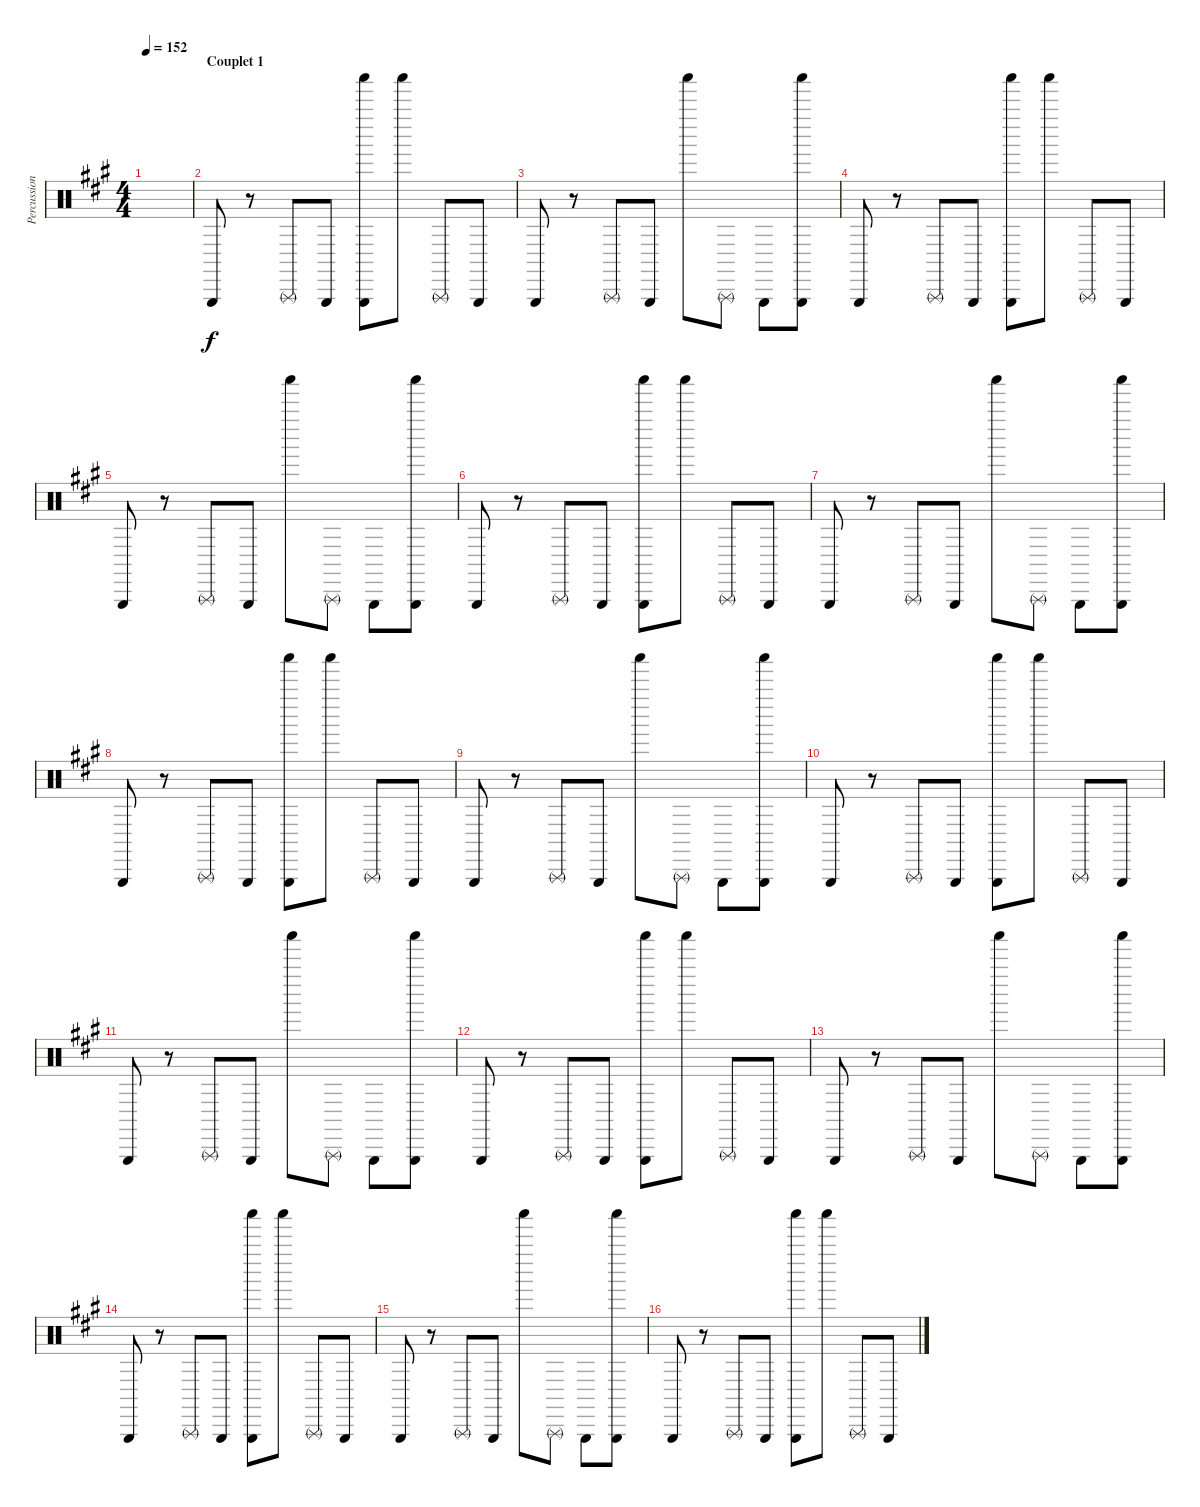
\track ("Percussions" "Percussion") {instrument percussion}
\staff {score}
\articulation defaults
\ts (4 4)
\tempo 152
\clef neutral
\ks a
|
\section ("" "Couplet 1")
"Triangle (hit)".8 r.8 "Triangle (rnute)".8 "Triangle (hit)".8 ("Triangle (hit)" "Shaker (hit)").8 "Shaker (hit)".8 "Triangle (rnute)".8 "Triangle (hit)".8 |
"Triangle (hit)".8 r.8 "Triangle (rnute)".8 "Triangle (hit)".8 "Shaker (hit)".8 "Triangle (rnute)".8 "Triangle (hit)".8 ("Triangle (hit)" "Shaker (hit)").8 |
"Triangle (hit)".8 r.8 "Triangle (rnute)".8 "Triangle (hit)".8 ("Triangle (hit)" "Shaker (hit)").8 "Shaker (hit)".8 "Triangle (rnute)".8 "Triangle (hit)".8 |
"Triangle (hit)".8 r.8 "Triangle (rnute)".8 "Triangle (hit)".8 "Shaker (hit)".8 "Triangle (rnute)".8 "Triangle (hit)".8 ("Triangle (hit)" "Shaker (hit)").8 |
"Triangle (hit)".8 r.8 "Triangle (rnute)".8 "Triangle (hit)".8 ("Triangle (hit)" "Shaker (hit)").8 "Shaker (hit)".8 "Triangle (rnute)".8 "Triangle (hit)".8 |
"Triangle (hit)".8 r.8 "Triangle (rnute)".8 "Triangle (hit)".8 "Shaker (hit)".8 "Triangle (rnute)".8 "Triangle (hit)".8 ("Triangle (hit)" "Shaker (hit)").8 |
"Triangle (hit)".8 r.8 "Triangle (rnute)".8 "Triangle (hit)".8 ("Triangle (hit)" "Shaker (hit)").8 "Shaker (hit)".8 "Triangle (rnute)".8 "Triangle (hit)".8 |
"Triangle (hit)".8 r.8 "Triangle (rnute)".8 "Triangle (hit)".8 "Shaker (hit)".8 "Triangle (rnute)".8 "Triangle (hit)".8 ("Triangle (hit)" "Shaker (hit)").8 |
"Triangle (hit)".8 r.8 "Triangle (rnute)".8 "Triangle (hit)".8 ("Triangle (hit)" "Shaker (hit)").8 "Shaker (hit)".8 "Triangle (rnute)".8 "Triangle (hit)".8 |
"Triangle (hit)".8 r.8 "Triangle (rnute)".8 "Triangle (hit)".8 "Shaker (hit)".8 "Triangle (rnute)".8 "Triangle (hit)".8 ("Triangle (hit)" "Shaker (hit)").8 |
"Triangle (hit)".8 r.8 "Triangle (rnute)".8 "Triangle (hit)".8 ("Triangle (hit)" "Shaker (hit)").8 "Shaker (hit)".8 "Triangle (rnute)".8 "Triangle (hit)".8 |
"Triangle (hit)".8 r.8 "Triangle (rnute)".8 "Triangle (hit)".8 "Shaker (hit)".8 "Triangle (rnute)".8 "Triangle (hit)".8 ("Triangle (hit)" "Shaker (hit)").8 |
"Triangle (hit)".8 r.8 "Triangle (rnute)".8 "Triangle (hit)".8 ("Triangle (hit)" "Shaker (hit)").8 "Shaker (hit)".8 "Triangle (rnute)".8 "Triangle (hit)".8 |
"Triangle (hit)".8 r.8 "Triangle (rnute)".8 "Triangle (hit)".8 "Shaker (hit)".8 "Triangle (rnute)".8 "Triangle (hit)".8 ("Triangle (hit)" "Shaker (hit)").8 |
"Triangle (hit)".8 r.8 "Triangle (rnute)".8 "Triangle (hit)".8 ("Triangle (hit)" "Shaker (hit)").8 "Shaker (hit)".8 "Triangle (rnute)".8 "Triangle (hit)".8
